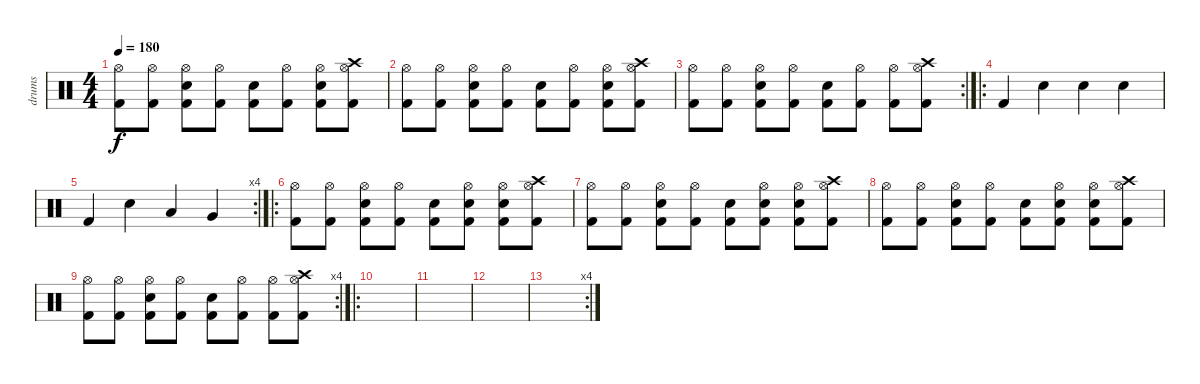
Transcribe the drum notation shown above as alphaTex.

\track ("drums" "drums") {instrument percussion}
\staff {score}
\articulation defaults
\ts (4 4)
\tempo 180
\clef neutral
\ks c
("Hi-Hat (open)" "Kick (hit) 2").8{dy f} ("Hi-Hat (open)" "Kick (hit) 2").8 ("Snare (hit) 2" "Hi-Hat (open)" "Kick (hit) 2").8 ("Hi-Hat (open)" "Kick (hit) 2").8 ("Snare (hit) 2" "Kick (hit) 2").8 ("Hi-Hat (open)" "Kick (hit) 2").8 ("Snare (hit) 2" "Hi-Hat (open)" "Kick (hit) 2").8 ("Crash high (hit)" "Hi-Hat (open)" "Kick (hit) 2").8 |
("Hi-Hat (open)" "Kick (hit) 2").8 ("Hi-Hat (open)" "Kick (hit) 2").8 ("Snare (hit) 2" "Hi-Hat (open)" "Kick (hit) 2").8 ("Hi-Hat (open)" "Kick (hit) 2").8 ("Snare (hit) 2" "Kick (hit) 2").8 ("Hi-Hat (open)" "Kick (hit) 2").8 ("Snare (hit) 2" "Hi-Hat (open)" "Kick (hit) 2").8 ("Crash high (hit)" "Hi-Hat (open)" "Kick (hit) 2").8 |
\rc 2
("Hi-Hat (open)" "Kick (hit) 2").8 ("Hi-Hat (open)" "Kick (hit) 2").8 ("Snare (hit) 2" "Hi-Hat (open)" "Kick (hit) 2").8 ("Hi-Hat (open)" "Kick (hit) 2").8 ("Snare (hit) 2" "Kick (hit) 2").8 ("Hi-Hat (open)" "Kick (hit) 2").8 ("Hi-Hat (open)" "Kick (hit) 2").8 ("Crash high (hit)" "Hi-Hat (open)" "Kick (hit) 2").8 |
\ro "Kick (hit) 2".4 "Snare (hit) 2".4 "Snare (hit) 2".4 "Snare (hit) 2".4
|
\rc 4 "Kick (hit) 2".4 "Snare (hit) 2".4 "Low Tom (hit)".4 "Very Low Tom (hit)".4
|
\ro
("Hi-Hat (open)" "Kick (hit) 2").8 ("Hi-Hat (open)" "Kick (hit) 2").8 ("Snare (hit) 2" "Hi-Hat (open)" "Kick (hit) 2").8 ("Hi-Hat (open)" "Kick (hit) 2").8 ("Snare (hit) 2" "Kick (hit) 2").8 ("Snare (hit) 2" "Hi-Hat (open)" "Kick (hit) 2").8 ("Snare (hit) 2" "Hi-Hat (open)" "Kick (hit) 2").8 ("Crash high (hit)" "Hi-Hat (open)" "Kick (hit) 2").8 |
("Hi-Hat (open)" "Kick (hit) 2").8 ("Hi-Hat (open)" "Kick (hit) 2").8 ("Snare (hit) 2" "Hi-Hat (open)" "Kick (hit) 2").8 ("Hi-Hat (open)" "Kick (hit) 2").8 ("Snare (hit) 2" "Kick (hit) 2").8 ("Snare (hit) 2" "Hi-Hat (open)" "Kick (hit) 2").8 ("Snare (hit) 2" "Hi-Hat (open)" "Kick (hit) 2").8 ("Crash high (hit)" "Hi-Hat (open)" "Kick (hit) 2").8 |
("Hi-Hat (open)" "Kick (hit) 2").8 ("Hi-Hat (open)" "Kick (hit) 2").8 ("Snare (hit) 2" "Hi-Hat (open)" "Kick (hit) 2").8 ("Hi-Hat (open)" "Kick (hit) 2").8 ("Snare (hit) 2" "Kick (hit) 2").8 ("Snare (hit) 2" "Hi-Hat (open)" "Kick (hit) 2").8 ("Snare (hit) 2" "Hi-Hat (open)" "Kick (hit) 2").8 ("Crash high (hit)" "Hi-Hat (open)" "Kick (hit) 2").8 |
\rc 4
("Hi-Hat (open)" "Kick (hit) 2").8 ("Hi-Hat (open)" "Kick (hit) 2").8 ("Snare (hit) 2" "Hi-Hat (open)" "Kick (hit) 2").8 ("Hi-Hat (open)" "Kick (hit) 2").8 ("Snare (hit) 2" "Kick (hit) 2").8 ("Hi-Hat (open)" "Kick (hit) 2").8 ("Hi-Hat (open)" "Kick (hit) 2").8 ("Crash high (hit)" "Hi-Hat (open)" "Kick (hit) 2").8 |
\ro
|
|
|
\rc 4
